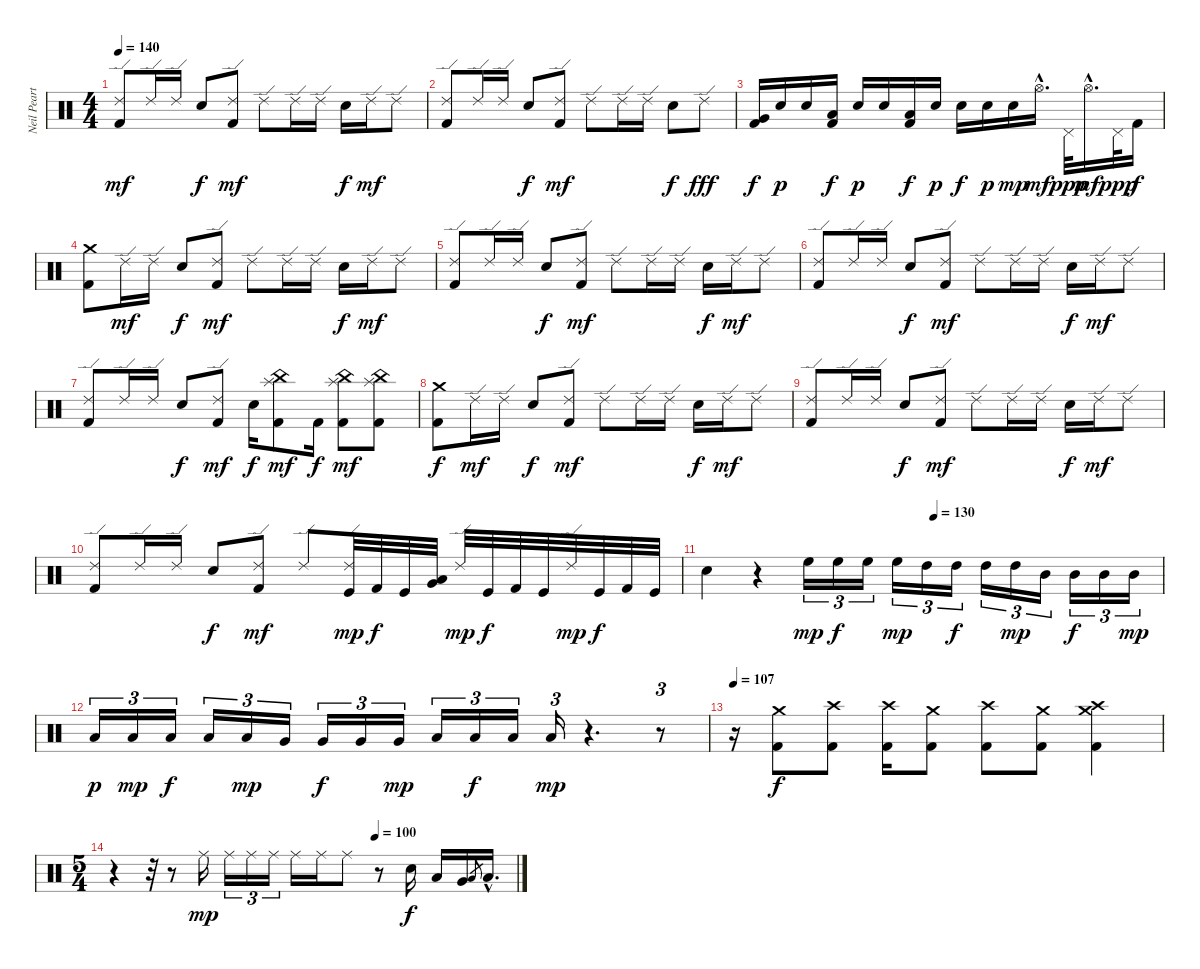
\track ("Neil Peart, Percusión" "Neil Peart") {instrument percussion}
\staff {score}
\articulation defaults
\ts (4 4)
\tempo 140
\clef neutral
\ks c
("Ride (edge) 2" "Kick (hit) 2").8{dy mf} "Ride (edge) 2".16 "Ride (edge) 2".16 "Electric Snare (hit)".8{dy f} ("Ride (edge) 2" "Kick (hit) 2").8{dy mf} "Ride (edge) 2".8 "Ride (edge) 2".16 "Ride (edge) 2".16 "Electric Snare (hit)".16{dy f} "Ride (edge) 2".16{dy mf} "Ride (edge) 2".8 |
("Ride (edge) 2" "Kick (hit) 2").8 "Ride (edge) 2".16 "Ride (edge) 2".16 "Electric Snare (hit)".8{dy f} ("Ride (edge) 2" "Kick (hit) 2").8{dy mf} "Ride (edge) 2".8 "Ride (edge) 2".16 "Ride (edge) 2".16 "Electric Snare (hit)".8{dy f} "Ride (edge) 2".8{dy fff} |
("Very Low Tom (hit)" "Kick (hit) 2").16{dy f} "Electric Snare (hit)".16{dy p} "Electric Snare (hit)".16 ("Low Tom (hit)" "Kick (hit) 2").16{dy f} "Electric Snare (hit)".16{dy p} "Electric Snare (hit)".16 ("Low Floor Tom (hit)" "Kick (hit) 2").16{dy f} "Electric Snare (hit)".16{dy p} "Electric Snare (hit)".16{dy f} "Electric Snare (hit)".16{dy p} "Electric Snare (hit)".16{dy mp} "Hi-Hat (open)"{hac}.16{d dy mf} "Pedal Hi-Hat (hit)".32{dy ppp} "Hi-Hat (open)"{hac}.16{d dy mf} "Pedal Hi-Hat (hit)".32{dy ppp} "Kick (hit) 2".16{dy f} |
("Crash medium (hit)" "Kick (hit) 2").8 "Ride (edge) 2".16{dy mf} "Ride (edge) 2".16 "Electric Snare (hit)".8{dy f} ("Ride (edge) 2" "Kick (hit) 2").8{dy mf} "Ride (edge) 2".8 "Ride (edge) 2".16 "Ride (edge) 2".16 "Electric Snare (hit)".16{dy f} "Ride (edge) 2".16{dy mf} "Ride (edge) 2".8 |
("Ride (edge) 2" "Kick (hit) 2").8 "Ride (edge) 2".16 "Ride (edge) 2".16 "Electric Snare (hit)".8{dy f} ("Ride (edge) 2" "Kick (hit) 2").8{dy mf} "Ride (edge) 2".8 "Ride (edge) 2".16 "Ride (edge) 2".16 "Electric Snare (hit)".16{dy f} "Ride (edge) 2".16{dy mf} "Ride (edge) 2".8 |
("Ride (edge) 2" "Kick (hit) 2").8 "Ride (edge) 2".16 "Ride (edge) 2".16 "Electric Snare (hit)".8{dy f} ("Ride (edge) 2" "Kick (hit) 2").8{dy mf} "Ride (edge) 2".8 "Ride (edge) 2".16 "Ride (edge) 2".16 "Electric Snare (hit)".16{dy f} "Ride (edge) 2".16{dy mf} "Ride (edge) 2".8 |
("Ride (edge) 2" "Kick (hit) 2").8 "Ride (edge) 2".16 "Ride (edge) 2".16 "Electric Snare (hit)".8{dy f} ("Ride (edge) 2" "Kick (hit) 2").8{dy mf} "Electric Snare (hit)".16{dy f} ("China (hit)" "Splash (hit)" "Kick (hit) 2").8{dy mf} "Kick (hit) 2".16{dy f} ("China (hit)" "Splash (hit)" "Kick (hit) 2").8{dy mf} ("China (hit)" "Splash (hit)" "Kick (hit) 2").8 |
("Crash medium (hit)" "Kick (hit) 2").8{dy f} "Ride (edge) 2".16{dy mf} "Ride (edge) 2".16 "Electric Snare (hit)".8{dy f} ("Ride (edge) 2" "Kick (hit) 2").8{dy mf} "Ride (edge) 2".8 "Ride (edge) 2".16 "Ride (edge) 2".16 "Electric Snare (hit)".16{dy f} "Ride (edge) 2".16{dy mf} "Ride (edge) 2".8 |
("Ride (edge) 2" "Kick (hit) 2").8 "Ride (edge) 2".16 "Ride (edge) 2".16 "Electric Snare (hit)".8{dy f} ("Ride (edge) 2" "Kick (hit) 2").8{dy mf} "Ride (edge) 2".8 "Ride (edge) 2".16 "Ride (edge) 2".16 "Electric Snare (hit)".16{dy f} "Ride (edge) 2".16{dy mf} "Ride (edge) 2".8 |
("Ride (edge) 2" "Kick (hit) 2").8 "Ride (edge) 2".16 "Ride (edge) 2".16 "Electric Snare (hit)".8{dy f} ("Ride (edge) 2" "Kick (hit) 2").8{dy mf} "Ride (edge) 2".8 ("Ride (edge) 2" "Kick (hit)").32{dy mp} "Kick (hit) 2".32{dy f} "Kick (hit)".32 ("Very Low Tom (hit)" "Low Floor Tom (hit)").32 "Ride (edge) 2".32{dy mp} "Kick (hit)".32{dy f} "Kick (hit) 2".32 "Kick (hit)".32 "Ride (edge) 2".32{dy mp} "Kick (hit)".32{dy f} "Kick (hit) 2".32 "Kick (hit)".32 |
\tempo (130 0.5)
"Electric Snare (hit)".4 r.4 "High Floor Tom (hit)".16{tu (3 2) dy mp} "High Floor Tom (hit)".16{tu (3 2) dy f} "High Floor Tom (hit)".16{tu (3 2)} "High Floor Tom (hit)".16{tu (3 2) dy mp} "High Tom (hit)".16{tu (3 2)} "High Tom (hit)".16{tu (3 2) dy f} "High Tom (hit)".16{tu (3 2)} "High Tom (hit)".16{tu (3 2) dy mp} "Mid Tom (hit)".16{tu (3 2)} "Mid Tom (hit)".16{tu (3 2) dy f} "Mid Tom (hit)".16{tu (3 2)} "Mid Tom (hit)".16{tu (3 2) dy mp} |
"Low Tom (hit)".16{tu (3 2) dy p} "Low Tom (hit)".16{tu (3 2) dy mp} "Low Tom (hit)".16{tu (3 2) dy f} "Low Tom (hit)".16{tu (3 2)} "Low Tom (hit)".16{tu (3 2) dy mp} "Very Low Tom (hit)".16{tu (3 2)} "Very Low Tom (hit)".16{tu (3 2) dy f} "Very Low Tom (hit)".16{tu (3 2)} "Very Low Tom (hit)".16{tu (3 2) dy mp} "Low Floor Tom (hit)".16{tu (3 2)} "Low Floor Tom (hit)".16{tu (3 2) dy f} "Low Floor Tom (hit)".16{tu (3 2)} "Low Floor Tom (hit)".16{tu (3 2) dy mp} r.4{d} r.8{tu (3 2)} |
\tempo 107
r.16 ("Crash medium (hit)" "Kick (hit) 2").8{dy f} ("Crash high (hit)" "Kick (hit) 2").8 ("Crash high (hit)" "Kick (hit) 2").16 ("Crash medium (hit)" "Kick (hit) 2").8 ("Crash high (hit)" "Kick (hit) 2").8 ("Crash medium (hit)" "Kick (hit) 2").8 ("Crash medium (hit)" "Crash high (hit)" "Kick (hit) 2").4 |
\ts (5 4)
\tempo (100 0.65)
r.4 r.32 r.8 "Ride (middle)".16{dy mp} "Ride (middle)".16{tu (3 2)} "Ride (middle)".16{tu (3 2)} "Ride (middle)".16{tu (3 2)} "Ride (middle)".16 "Ride (middle)".16 "Ride (middle)".8 r.8 "Electric Snare (hit)".16{dy f} "Low Tom (hit)".16 "Very Low Tom (hit)".16 "Low Floor Tom (hit)".8{gr} "Low Floor Tom (hit)"{hac}.16{d}
